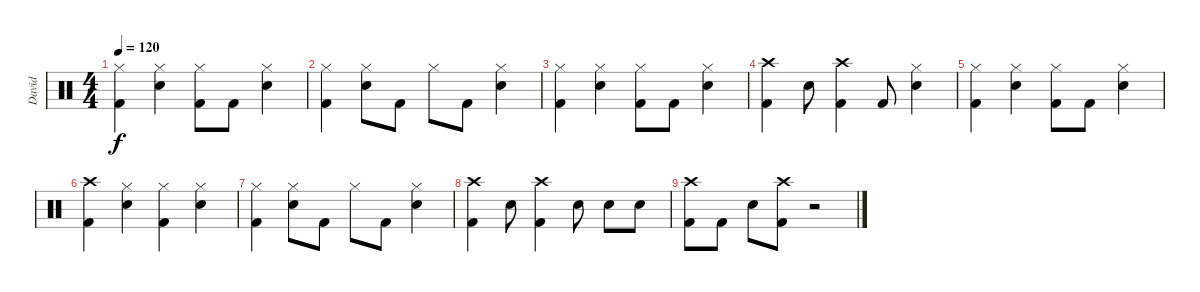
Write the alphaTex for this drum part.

\track ("David" "David") {instrument percussion}
\staff {score}
\articulation defaults
\ts (4 4)
\tempo 120
\clef neutral
\ks c
("Hi-Hat (closed)" "Kick (hit) 2").4{dy f} ("Hi-Hat (closed)" "Snare (hit) 2").4 ("Hi-Hat (closed)" "Kick (hit) 2").8 "Kick (hit) 2".8 ("Hi-Hat (closed)" "Snare (hit) 2").4 |
("Hi-Hat (closed)" "Kick (hit) 2").4 ("Hi-Hat (closed)" "Snare (hit) 2").8 "Kick (hit) 2".8 "Hi-Hat (closed)".8 "Kick (hit) 2".8 ("Hi-Hat (closed)" "Snare (hit) 2").4 |
("Hi-Hat (closed)" "Kick (hit) 2").4 ("Hi-Hat (closed)" "Snare (hit) 2").4 ("Hi-Hat (closed)" "Kick (hit) 2").8 "Kick (hit) 2".8 ("Hi-Hat (closed)" "Snare (hit) 2").4 |
("Crash high (hit)" "Kick (hit) 2").4 "Snare (hit) 2".8 ("Crash high (hit)" "Kick (hit) 2").4 "Kick (hit) 2".8 ("Hi-Hat (closed)" "Snare (hit) 2").4 |
("Hi-Hat (closed)" "Kick (hit) 2").4 ("Hi-Hat (closed)" "Snare (hit) 2").4 ("Hi-Hat (closed)" "Kick (hit) 2").8 "Kick (hit) 2".8 ("Hi-Hat (closed)" "Snare (hit) 2").4 |
("Crash high (hit)" "Kick (hit) 2").4 ("Hi-Hat (closed)" "Snare (hit) 2").4 ("Hi-Hat (closed)" "Kick (hit) 2").4 ("Hi-Hat (closed)" "Snare (hit) 2").4 |
("Hi-Hat (closed)" "Kick (hit) 2").4 ("Hi-Hat (closed)" "Snare (hit) 2").8 "Kick (hit) 2".8 "Hi-Hat (closed)".8 "Kick (hit) 2".8 ("Hi-Hat (closed)" "Snare (hit) 2").4 |
("Crash high (hit)" "Kick (hit) 2").4 "Snare (hit) 2".8 ("Crash high (hit)" "Kick (hit) 2").4 "Snare (hit) 2".8 "Snare (hit) 2".8 "Snare (hit) 2".8 |
("Crash high (hit)" "Kick (hit) 2").8 "Kick (hit) 2".8 "Snare (hit) 2".8 ("Crash high (hit)" "Kick (hit) 2").8 r.2
